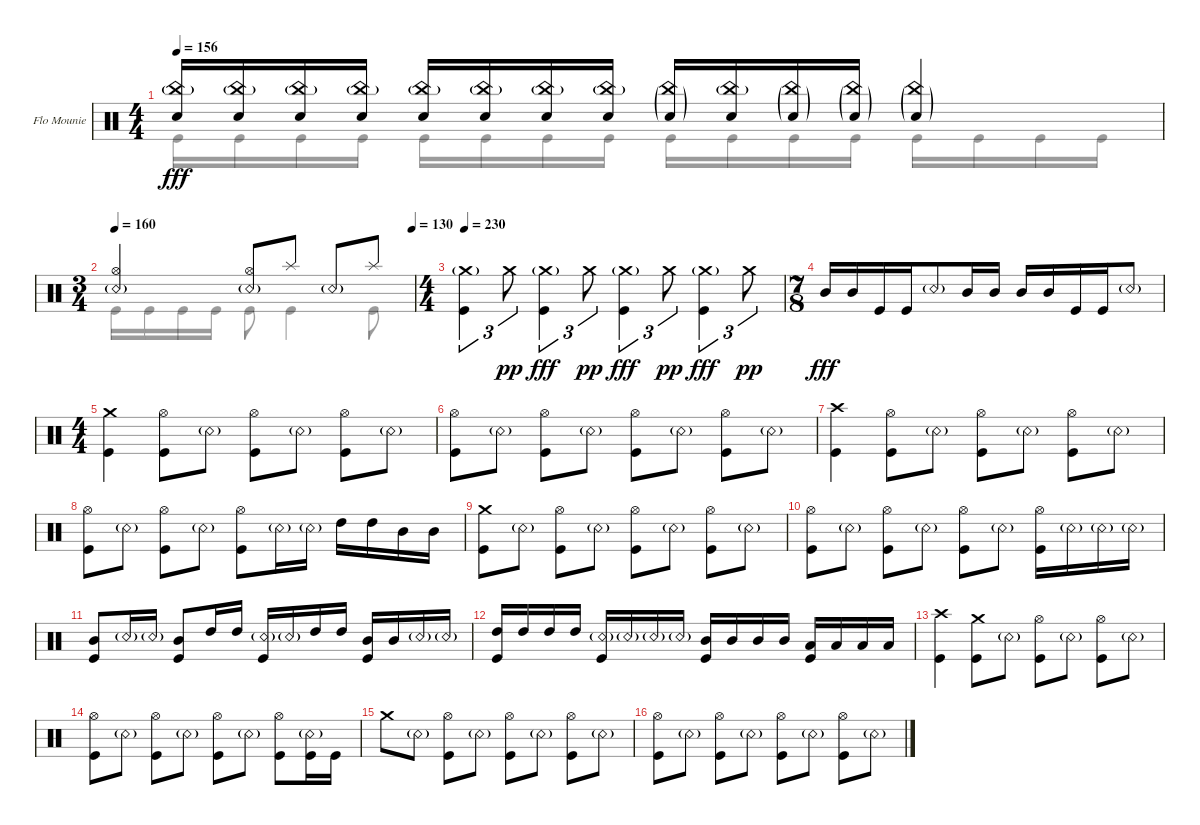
\bracketExtendMode groupsimilarinstruments
\firstSystemTrackNameOrientation horizontal
\otherSystemsTrackNameOrientation horizontal
\track ("Flo Mounier" "Flo Mounie") {instrument percussion}
\staff {score}
\articulation defaults
\voice
\ts (4 4)
\tempo 156
\clef neutral
\ks c
("Snare (hit) 2" "China (hit)"{g}).16{dy fff} ("Snare (hit) 2" "China (hit)"{g}).16 ("Snare (hit) 2" "China (hit)"{g}).16 ("Snare (hit) 2" "China (hit)"{g}).16 ("Snare (hit) 2" "China (hit)"{g}).16 ("Snare (hit) 2" "China (hit)"{g}).16 ("Snare (hit) 2" "China (hit)"{g}).16 ("Snare (hit) 2" "China (hit)"{g}).16 ("Snare (hit) 2"{g} "China (hit)"{g}).16 ("Snare (hit) 2" "China (hit)"{g}).16 ("Snare (hit) 2"{g} "China (hit)"{g}).16 ("Snare (hit) 2"{g} "China (hit)"{g}).16 ("Snare (hit) 2"{g} "China (hit)"{g}).4 |
\ts (3 4)
\tempo 160
\tempo (130 0.99375)
("Hi-Hat (open)" "Snare (rim shot)"{g}).4 ("Snare (rim shot)"{g} "Hi-Hat (open)").8 "Splash (hit)".8 "Snare (rim shot)"{g}.8 "Splash (hit)".8 |
\ts (4 4)
\tempo 230
("Crash medium (hit)"{g} "Kick (hit)").4{tu (3 2)} "Crash medium (hit)".8{tu (3 2) dy pp} ("Crash medium (hit)"{g} "Kick (hit)").4{tu (3 2) dy fff} "Crash medium (hit)".8{tu (3 2) dy pp} ("Crash medium (hit)"{g} "Kick (hit)").4{tu (3 2) dy fff} "Crash medium (hit)".8{tu (3 2) dy pp} ("Crash medium (hit)"{g} "Kick (hit)").4{tu (3 2) dy fff} "Crash medium (hit)".8{tu (3 2) dy pp} |
\ts (7 8)
"Mid Tom (hit)".16{dy fff} "Mid Tom (hit)".16 "Kick (hit)".16 "Kick (hit)".16 "Snare (rim shot)"{g}.8 "Mid Tom (hit)".16 "Mid Tom (hit)".16 "Mid Tom (hit)".16 "Mid Tom (hit)".16 "Kick (hit)".16 "Kick (hit)".16 "Snare (rim shot)"{g}.8 |
\ts (4 4)
("Kick (hit)" "Crash medium (hit)").4 ("Kick (hit)" "Hi-Hat (open)").8 "Snare (rim shot)"{g}.8 ("Kick (hit)" "Hi-Hat (open)").8 "Snare (rim shot)"{g}.8 ("Kick (hit)" "Hi-Hat (open)").8 "Snare (rim shot)"{g}.8 |
("Kick (hit)" "Hi-Hat (open)").8 "Snare (rim shot)"{g}.8 ("Kick (hit)" "Hi-Hat (open)").8 "Snare (rim shot)"{g}.8 ("Kick (hit)" "Hi-Hat (open)").8 "Snare (rim shot)"{g}.8 ("Kick (hit)" "Hi-Hat (open)").8 "Snare (rim shot)"{g}.8 |
("Kick (hit)" "Crash high (hit)").4 ("Kick (hit)" "Hi-Hat (open)").8 "Snare (rim shot)"{g}.8 ("Kick (hit)" "Hi-Hat (open)").8 "Snare (rim shot)"{g}.8 ("Kick (hit)" "Hi-Hat (open)").8 "Snare (rim shot)"{g}.8 |
("Kick (hit)" "Hi-Hat (open)").8 "Snare (rim shot)"{g}.8 ("Kick (hit)" "Hi-Hat (open)").8 "Snare (rim shot)"{g}.8 ("Kick (hit)" "Hi-Hat (open)").8 "Snare (rim shot)"{g}.16 "Snare (rim shot)"{g}.16 "High Tom (hit)".16 "High Tom (hit)".16 "Mid Tom (hit)".16 "Mid Tom (hit)".16 |
("Kick (hit)" "Crash medium (hit)").8 "Snare (rim shot)"{g}.8 ("Kick (hit)" "Hi-Hat (open)").8 "Snare (rim shot)"{g}.8 ("Kick (hit)" "Hi-Hat (open)").8 "Snare (rim shot)"{g}.8 ("Kick (hit)" "Hi-Hat (open)").8 "Snare (rim shot)"{g}.8 |
("Kick (hit)" "Hi-Hat (open)").8 "Snare (rim shot)"{g}.8 ("Kick (hit)" "Hi-Hat (open)").8 "Snare (rim shot)"{g}.8 ("Kick (hit)" "Hi-Hat (open)").8 "Snare (rim shot)"{g}.8 ("Kick (hit)" "Hi-Hat (open)").16 "Snare (rim shot)"{g}.16 "Snare (rim shot)"{g}.16 "Snare (rim shot)"{g}.16 |
("Mid Tom (hit)" "Kick (hit)").8 "Snare (rim shot)"{g}.16 "Snare (rim shot)"{g}.16 ("Mid Tom (hit)" "Kick (hit)").8 "High Tom (hit)".16 "High Tom (hit)".16 ("Snare (rim shot)"{g} "Kick (hit)").16 "Snare (rim shot)"{g}.16 "High Tom (hit)".16 "High Tom (hit)".16 ("Mid Tom (hit)" "Kick (hit)").16 "Mid Tom (hit)".16 "Snare (rim shot)"{g}.16 "Snare (rim shot)"{g}.16 |
("High Tom (hit)" "Kick (hit)").16 "High Tom (hit)".16 "High Tom (hit)".16 "High Tom (hit)".16 ("Snare (rim shot)"{g} "Kick (hit)").16 "Snare (rim shot)"{g}.16 "Snare (rim shot)"{g}.16 "Snare (rim shot)"{g}.16 ("Mid Tom (hit)" "Kick (hit)").16 "Mid Tom (hit)".16 "Mid Tom (hit)".16 "Mid Tom (hit)".16 ("Low Tom (hit)" "Kick (hit)").16 "Low Tom (hit)".16 "Low Tom (hit)".16 "Low Tom (hit)".16 |
("Kick (hit)" "Crash high (hit)").4 ("Kick (hit)" "Crash medium (hit)").8 "Snare (rim shot)"{g}.8 ("Hi-Hat (open)" "Kick (hit)").8 "Snare (rim shot)"{g}.8 ("Hi-Hat (open)" "Kick (hit)").8 "Snare (rim shot)"{g}.8 |
("Hi-Hat (open)" "Kick (hit)").8 "Snare (rim shot)"{g}.8 ("Hi-Hat (open)" "Kick (hit)").8 "Snare (rim shot)"{g}.8 ("Hi-Hat (open)" "Kick (hit)").8 "Snare (rim shot)"{g}.8 ("Hi-Hat (open)" "Kick (hit)").8 ("Snare (rim shot)"{g} "Kick (hit)").16 "Kick (hit)".16 |
"Crash medium (hit)".8 "Snare (rim shot)"{g}.8 ("Kick (hit)" "Hi-Hat (open)").8 "Snare (rim shot)"{g}.8 ("Kick (hit)" "Hi-Hat (open)").8 "Snare (rim shot)"{g}.8 ("Kick (hit)" "Hi-Hat (open)").8 "Snare (rim shot)"{g}.8 |
("Kick (hit)" "Hi-Hat (open)").8 "Snare (rim shot)"{g}.8 ("Kick (hit)" "Hi-Hat (open)").8 "Snare (rim shot)"{g}.8 ("Kick (hit)" "Hi-Hat (open)").8 "Snare (rim shot)"{g}.8 ("Kick (hit)" "Hi-Hat (open)").8 "Snare (rim shot)"{g}.8
\voice
\clef neutral
\ottava regular
\simile none
\ks c "Kick (hit)".16{dy fff} "Kick (hit)".16 "Kick (hit)".16 "Kick (hit)".16 "Kick (hit)".16 "Kick (hit)".16 "Kick (hit)".16 "Kick (hit)".16 "Kick (hit)".16 "Kick (hit)".16 "Kick (hit)".16 "Kick (hit)".16 "Kick (hit)".16 "Kick (hit)".16 "Kick (hit)".16 "Kick (hit)".16
|
"Kick (hit)".16 "Kick (hit)".16 "Kick (hit)".16 "Kick (hit)".16 "Kick (hit)".8 "Kick (hit)".4 "Kick (hit)".8 |
|
|
|
|
|
|
|
|
|
|
|
|
|
